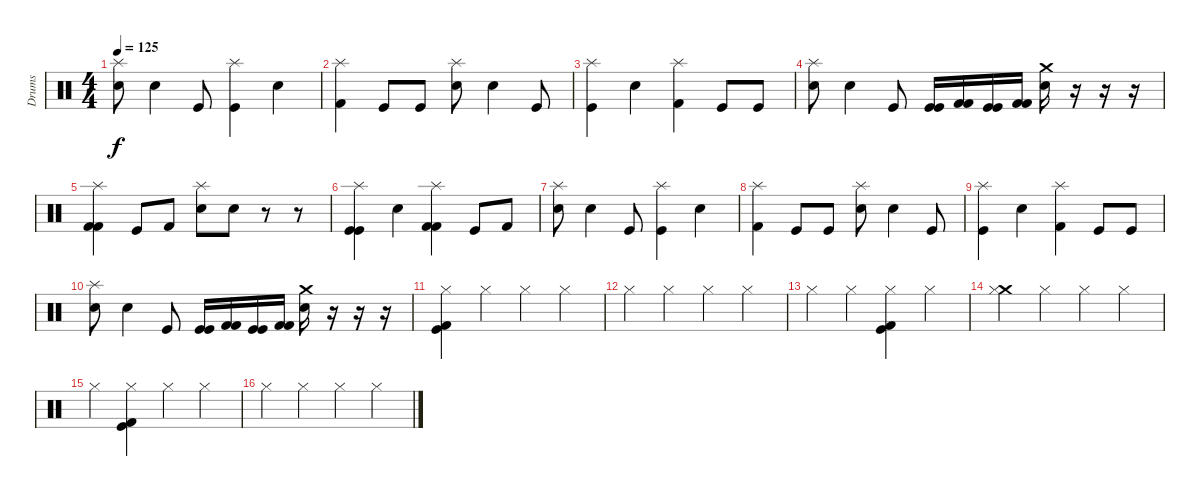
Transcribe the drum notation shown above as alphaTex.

\track ("Drums" "Drums") {instrument percussion}
\staff {score}
\articulation defaults
\ts (4 4)
\tempo 125
\clef neutral
\ks c
("Splash (hit)" "Electric Snare (hit)").8{dy f} "Electric Snare (hit)".4 "Kick (hit)".8 ("Splash (hit)" "Kick (hit)").4 "Electric Snare (hit)".4 |
("Splash (hit)" "Kick (hit) 2").4 "Kick (hit)".8 "Kick (hit)".8 ("Splash (hit)" "Electric Snare (hit)").8 "Electric Snare (hit)".4 "Kick (hit)".8 |
("Splash (hit)" "Kick (hit)").4 "Electric Snare (hit)".4 ("Splash (hit)" "Kick (hit) 2").4 "Kick (hit)".8 "Kick (hit)".8 |
("Splash (hit)" "Electric Snare (hit)").8 "Electric Snare (hit)".4 "Kick (hit)".8 ("Kick (hit)" "Kick (hit)").16 ("Kick (hit) 2" "Kick (hit) 2").16 ("Kick (hit)" "Kick (hit)").16 ("Kick (hit) 2" "Kick (hit) 2").16 ("Crash medium (hit)" "Electric Snare (hit)").16 r.16 r.16 r.16 |
("Splash (hit)" "Kick (hit) 2" "Kick (hit) 2").4 "Kick (hit)".8 "Kick (hit) 2".8 ("Splash (hit)" "Electric Snare (hit)").8 "Electric Snare (hit)".8 r.8 r.8 |
("Splash (hit)" "Kick (hit)" "Kick (hit)").4 "Electric Snare (hit)".4 ("Splash (hit)" "Kick (hit) 2" "Kick (hit) 2").4 "Kick (hit)".8 "Kick (hit) 2".8 |
("Splash (hit)" "Electric Snare (hit)").8 "Electric Snare (hit)".4 "Kick (hit)".8 ("Splash (hit)" "Kick (hit)").4 "Electric Snare (hit)".4 |
("Splash (hit)" "Kick (hit) 2").4 "Kick (hit)".8 "Kick (hit)".8 ("Splash (hit)" "Electric Snare (hit)").8 "Electric Snare (hit)".4 "Kick (hit)".8 |
("Splash (hit)" "Kick (hit)").4 "Electric Snare (hit)".4 ("Splash (hit)" "Kick (hit) 2").4 "Kick (hit)".8 "Kick (hit)".8 |
("Splash (hit)" "Electric Snare (hit)").8 "Electric Snare (hit)".4 "Kick (hit)".8 ("Kick (hit)" "Kick (hit)").16 ("Kick (hit) 2" "Kick (hit) 2").16 ("Kick (hit)" "Kick (hit)").16 ("Kick (hit) 2" "Kick (hit) 2").16 ("Crash medium (hit)" "Electric Snare (hit)").16 r.16 r.16 r.16 |
("Hi-Hat (closed)" "Kick (hit)" "Kick (hit) 2").4 "Hi-Hat (closed)".4 "Hi-Hat (closed)".4 "Hi-Hat (closed)".4 |
"Hi-Hat (closed)".4 "Hi-Hat (closed)".4 "Hi-Hat (closed)".4 "Hi-Hat (closed)".4 |
"Hi-Hat (closed)".4 "Hi-Hat (closed)".4 ("Hi-Hat (closed)" "Kick (hit)" "Kick (hit) 2").4 "Hi-Hat (closed)".4 |
("Crash medium (hit)" "Hi-Hat (closed)").4 "Hi-Hat (closed)".4 "Hi-Hat (closed)".4 "Hi-Hat (closed)".4 |
"Hi-Hat (closed)".4 ("Hi-Hat (closed)" "Kick (hit)" "Kick (hit) 2").4 "Hi-Hat (closed)".4 "Hi-Hat (closed)".4 |
"Hi-Hat (closed)".4 "Hi-Hat (closed)".4 "Hi-Hat (closed)".4 "Hi-Hat (closed)".4
